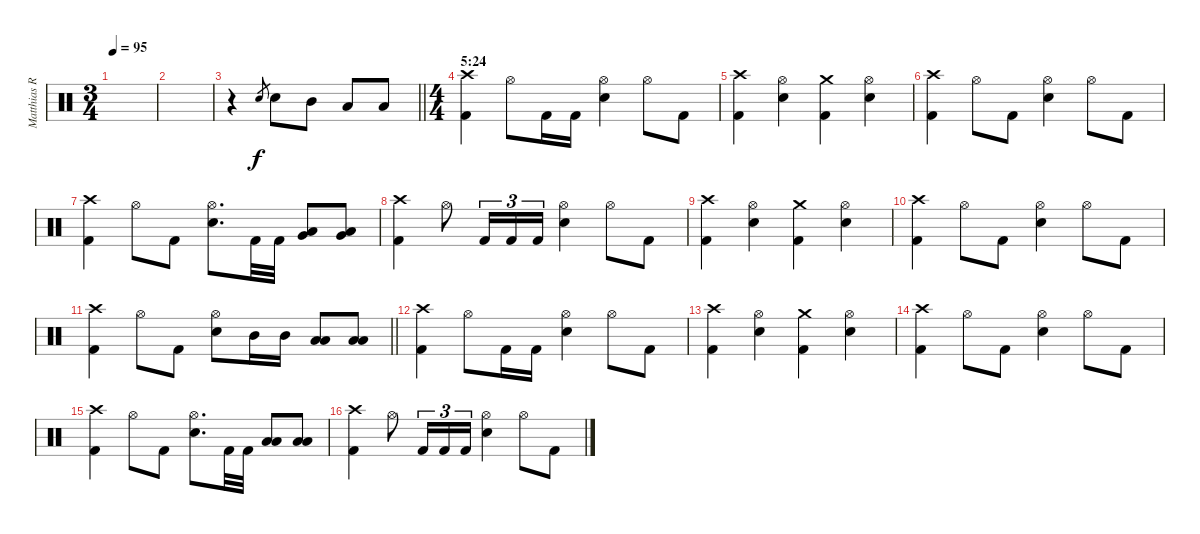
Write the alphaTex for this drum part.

\track ("Matthias R." "Matthias R") {instrument percussion}
\staff {score}
\articulation defaults
\ts (3 4)
\tempo 95
\clef neutral
\ks c
|
|
\barLineRight lightlight
r.4 "Snare (hit) 2".8{gr} "Snare (hit) 2".8 "Mid Tom (hit)".8 "Low Tom (hit)".8 "Low Tom (hit)".8 |
\ts (4 4)
\section ("" "5:24")
("Kick (hit) 2" "Crash high (hit)").4 "Hi-Hat (open)".8 "Kick (hit) 2".16 "Kick (hit) 2".16 ("Snare (hit) 2" "Hi-Hat (open)").4 "Hi-Hat (open)".8 "Kick (hit) 2".8 |
("Kick (hit) 2" "Crash high (hit)").4 ("Snare (hit) 2" "Hi-Hat (open)").4 ("Kick (hit) 2" "Crash medium (hit)").4 ("Snare (hit) 2" "Hi-Hat (open)").4 |
("Kick (hit) 2" "Crash high (hit)").4 "Hi-Hat (open)".8 "Kick (hit) 2".8 ("Snare (hit) 2" "Hi-Hat (open)").4 "Hi-Hat (open)".8 "Kick (hit) 2".8 |
("Kick (hit) 2" "Crash high (hit)").4 "Hi-Hat (open)".8 "Kick (hit) 2".8 ("Snare (hit) 2" "Hi-Hat (open)").8{d} "Kick (hit) 2".32 "Kick (hit) 2".32 ("Low Tom (hit)" "Very Low Tom (hit)").8 ("Low Tom (hit)" "Very Low Tom (hit)").8 |
("Kick (hit) 2" "Crash high (hit)").4 "Hi-Hat (open)".8 "Kick (hit) 2".16{tu (3 2)} "Kick (hit) 2".16{tu (3 2)} "Kick (hit) 2".16{tu (3 2)} ("Snare (hit) 2" "Hi-Hat (open)").4 "Hi-Hat (open)".8 "Kick (hit) 2".8 |
("Kick (hit) 2" "Crash high (hit)").4 ("Snare (hit) 2" "Hi-Hat (open)").4 ("Kick (hit) 2" "Crash medium (hit)").4 ("Snare (hit) 2" "Hi-Hat (open)").4 |
("Kick (hit) 2" "Crash high (hit)").4 "Hi-Hat (open)".8 "Kick (hit) 2".8 ("Snare (hit) 2" "Hi-Hat (open)").4 "Hi-Hat (open)".8 "Kick (hit) 2".8 |
\barLineRight lightlight
("Kick (hit) 2" "Crash high (hit)").4 "Hi-Hat (open)".8 "Kick (hit) 2".8 ("Snare (hit) 2" "Hi-Hat (open)").8 "Mid Tom (hit)".16 "Mid Tom (hit)".16 ("Low Tom (hit)" "Low Tom (hit)").8 ("Low Tom (hit)" "Low Tom (hit)").8 |
("Kick (hit) 2" "Crash high (hit)").4 "Hi-Hat (open)".8 "Kick (hit) 2".16 "Kick (hit) 2".16 ("Snare (hit) 2" "Hi-Hat (open)").4 "Hi-Hat (open)".8 "Kick (hit) 2".8 |
("Kick (hit) 2" "Crash high (hit)").4 ("Snare (hit) 2" "Hi-Hat (open)").4 ("Kick (hit) 2" "Crash medium (hit)").4 ("Snare (hit) 2" "Hi-Hat (open)").4 |
("Kick (hit) 2" "Crash high (hit)").4 "Hi-Hat (open)".8 "Kick (hit) 2".8 ("Snare (hit) 2" "Hi-Hat (open)").4 "Hi-Hat (open)".8 "Kick (hit) 2".8 |
("Kick (hit) 2" "Crash high (hit)").4 "Hi-Hat (open)".8 "Kick (hit) 2".8 ("Snare (hit) 2" "Hi-Hat (open)").8{d} "Kick (hit) 2".32 "Kick (hit) 2".32 ("Low Tom (hit)" "Low Tom (hit)").8 ("Low Tom (hit)" "Low Tom (hit)").8 |
("Kick (hit) 2" "Crash high (hit)").4 "Hi-Hat (open)".8 "Kick (hit) 2".16{tu (3 2)} "Kick (hit) 2".16{tu (3 2)} "Kick (hit) 2".16{tu (3 2)} ("Snare (hit) 2" "Hi-Hat (open)").4 "Hi-Hat (open)".8 "Kick (hit) 2".8
